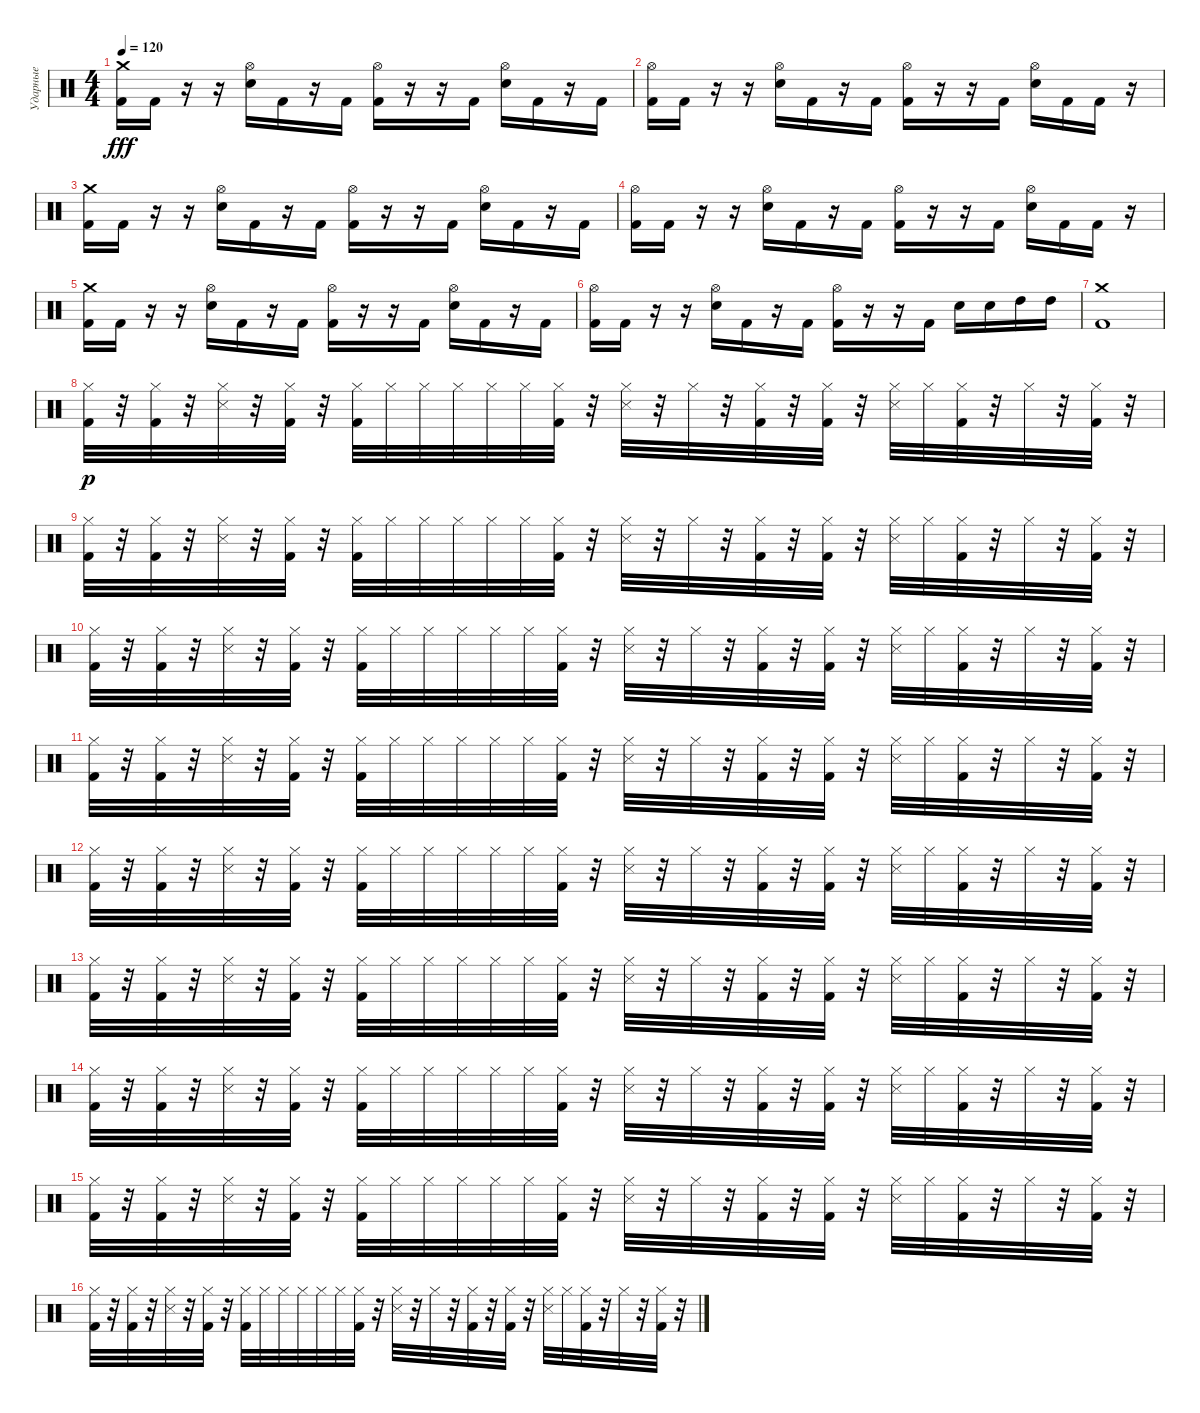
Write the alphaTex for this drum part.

\track ("Ударные" "Ударные") {instrument percussion}
\staff {score}
\articulation defaults
\ts (4 4)
\tempo 120
\clef neutral
\ks c
("Crash medium (hit)" "Kick (hit) 2").16{dy fff} "Kick (hit) 2".16 r.16 r.16 ("Hi-Hat (open)" "Electric Snare (hit)").16 "Kick (hit) 2".16 r.16 "Kick (hit) 2".16 ("Hi-Hat (open)" "Kick (hit) 2").16 r.16 r.16 "Kick (hit) 2".16 ("Hi-Hat (open)" "Electric Snare (hit)").16 "Kick (hit) 2".16 r.16 "Kick (hit) 2".16 |
("Hi-Hat (open)" "Kick (hit) 2").16 "Kick (hit) 2".16 r.16 r.16 ("Hi-Hat (open)" "Electric Snare (hit)").16 "Kick (hit) 2".16 r.16 "Kick (hit) 2".16 ("Hi-Hat (open)" "Kick (hit) 2").16 r.16 r.16 "Kick (hit) 2".16 ("Hi-Hat (open)" "Electric Snare (hit)").16 "Kick (hit) 2".16 "Kick (hit) 2".16 r.16 |
("Crash medium (hit)" "Kick (hit) 2").16 "Kick (hit) 2".16 r.16 r.16 ("Hi-Hat (open)" "Electric Snare (hit)").16 "Kick (hit) 2".16 r.16 "Kick (hit) 2".16 ("Hi-Hat (open)" "Kick (hit) 2").16 r.16 r.16 "Kick (hit) 2".16 ("Hi-Hat (open)" "Electric Snare (hit)").16 "Kick (hit) 2".16 r.16 "Kick (hit) 2".16 |
("Hi-Hat (open)" "Kick (hit) 2").16 "Kick (hit) 2".16 r.16 r.16 ("Hi-Hat (open)" "Electric Snare (hit)").16 "Kick (hit) 2".16 r.16 "Kick (hit) 2".16 ("Hi-Hat (open)" "Kick (hit) 2").16 r.16 r.16 "Kick (hit) 2".16 ("Hi-Hat (open)" "Electric Snare (hit)").16 "Kick (hit) 2".16 "Kick (hit) 2".16 r.16 |
("Crash medium (hit)" "Kick (hit) 2").16 "Kick (hit) 2".16 r.16 r.16 ("Hi-Hat (open)" "Electric Snare (hit)").16 "Kick (hit) 2".16 r.16 "Kick (hit) 2".16 ("Hi-Hat (open)" "Kick (hit) 2").16 r.16 r.16 "Kick (hit) 2".16 ("Hi-Hat (open)" "Electric Snare (hit)").16 "Kick (hit) 2".16 r.16 "Kick (hit) 2".16 |
("Hi-Hat (open)" "Kick (hit) 2").16 "Kick (hit) 2".16 r.16 r.16 ("Hi-Hat (open)" "Electric Snare (hit)").16 "Kick (hit) 2".16 r.16 "Kick (hit) 2".16 ("Hi-Hat (open)" "Kick (hit) 2").16 r.16 r.16 "Kick (hit) 2".16 "Electric Snare (hit)".16 "Electric Snare (hit)".16 "High Tom (hit)".16 "High Tom (hit)".16 |
("Crash medium (hit)" "Kick (hit) 2").1 |
("Hi-Hat (closed)" "Kick (hit) 2").32{dy p} r.32 ("Hi-Hat (closed)" "Kick (hit) 2").32 r.32 ("Hi-Hat (closed)" "Metronome (hit)").32 r.32 ("Hi-Hat (closed)" "Kick (hit) 2").32 r.32 ("Hi-Hat (closed)" "Kick (hit) 2").32 "Hi-Hat (closed)".32 "Hi-Hat (closed)".32 "Hi-Hat (closed)".32 "Hi-Hat (closed)".32 "Hi-Hat (closed)".32 ("Hi-Hat (closed)" "Kick (hit) 2").32 r.32 ("Hi-Hat (closed)" "Metronome (hit)").32 r.32 "Hi-Hat (closed)".32 r.32 ("Hi-Hat (closed)" "Kick (hit) 2").32 r.32 ("Hi-Hat (closed)" "Kick (hit) 2").32 r.32 ("Hi-Hat (closed)" "Metronome (hit)").32 "Hi-Hat (closed)".32 ("Hi-Hat (closed)" "Kick (hit) 2").32 r.32 "Hi-Hat (closed)".32 r.32 ("Hi-Hat (closed)" "Kick (hit) 2").32 r.32 |
("Hi-Hat (closed)" "Kick (hit) 2").32 r.32 ("Hi-Hat (closed)" "Kick (hit) 2").32 r.32 ("Hi-Hat (closed)" "Metronome (hit)").32 r.32 ("Hi-Hat (closed)" "Kick (hit) 2").32 r.32 ("Hi-Hat (closed)" "Kick (hit) 2").32 "Hi-Hat (closed)".32 "Hi-Hat (closed)".32 "Hi-Hat (closed)".32 "Hi-Hat (closed)".32 "Hi-Hat (closed)".32 ("Hi-Hat (closed)" "Kick (hit) 2").32 r.32 ("Hi-Hat (closed)" "Metronome (hit)").32 r.32 "Hi-Hat (closed)".32 r.32 ("Hi-Hat (closed)" "Kick (hit) 2").32 r.32 ("Hi-Hat (closed)" "Kick (hit) 2").32 r.32 ("Hi-Hat (closed)" "Metronome (hit)").32 "Hi-Hat (closed)".32 ("Hi-Hat (closed)" "Kick (hit) 2").32 r.32 "Hi-Hat (closed)".32 r.32 ("Hi-Hat (closed)" "Kick (hit) 2").32 r.32 |
("Hi-Hat (closed)" "Kick (hit) 2").32 r.32 ("Hi-Hat (closed)" "Kick (hit) 2").32 r.32 ("Hi-Hat (closed)" "Metronome (hit)").32 r.32 ("Hi-Hat (closed)" "Kick (hit) 2").32 r.32 ("Hi-Hat (closed)" "Kick (hit) 2").32 "Hi-Hat (closed)".32 "Hi-Hat (closed)".32 "Hi-Hat (closed)".32 "Hi-Hat (closed)".32 "Hi-Hat (closed)".32 ("Hi-Hat (closed)" "Kick (hit) 2").32 r.32 ("Hi-Hat (closed)" "Metronome (hit)").32 r.32 "Hi-Hat (closed)".32 r.32 ("Hi-Hat (closed)" "Kick (hit) 2").32 r.32 ("Hi-Hat (closed)" "Kick (hit) 2").32 r.32 ("Hi-Hat (closed)" "Metronome (hit)").32 "Hi-Hat (closed)".32 ("Hi-Hat (closed)" "Kick (hit) 2").32 r.32 "Hi-Hat (closed)".32 r.32 ("Hi-Hat (closed)" "Kick (hit) 2").32 r.32 |
("Hi-Hat (closed)" "Kick (hit) 2").32 r.32 ("Hi-Hat (closed)" "Kick (hit) 2").32 r.32 ("Hi-Hat (closed)" "Metronome (hit)").32 r.32 ("Hi-Hat (closed)" "Kick (hit) 2").32 r.32 ("Hi-Hat (closed)" "Kick (hit) 2").32 "Hi-Hat (closed)".32 "Hi-Hat (closed)".32 "Hi-Hat (closed)".32 "Hi-Hat (closed)".32 "Hi-Hat (closed)".32 ("Hi-Hat (closed)" "Kick (hit) 2").32 r.32 ("Hi-Hat (closed)" "Metronome (hit)").32 r.32 "Hi-Hat (closed)".32 r.32 ("Hi-Hat (closed)" "Kick (hit) 2").32 r.32 ("Hi-Hat (closed)" "Kick (hit) 2").32 r.32 ("Hi-Hat (closed)" "Metronome (hit)").32 "Hi-Hat (closed)".32 ("Hi-Hat (closed)" "Kick (hit) 2").32 r.32 "Hi-Hat (closed)".32 r.32 ("Hi-Hat (closed)" "Kick (hit) 2").32 r.32 |
("Hi-Hat (closed)" "Kick (hit) 2").32 r.32 ("Hi-Hat (closed)" "Kick (hit) 2").32 r.32 ("Hi-Hat (closed)" "Metronome (hit)").32 r.32 ("Hi-Hat (closed)" "Kick (hit) 2").32 r.32 ("Hi-Hat (closed)" "Kick (hit) 2").32 "Hi-Hat (closed)".32 "Hi-Hat (closed)".32 "Hi-Hat (closed)".32 "Hi-Hat (closed)".32 "Hi-Hat (closed)".32 ("Hi-Hat (closed)" "Kick (hit) 2").32 r.32 ("Hi-Hat (closed)" "Metronome (hit)").32 r.32 "Hi-Hat (closed)".32 r.32 ("Hi-Hat (closed)" "Kick (hit) 2").32 r.32 ("Hi-Hat (closed)" "Kick (hit) 2").32 r.32 ("Hi-Hat (closed)" "Metronome (hit)").32 "Hi-Hat (closed)".32 ("Hi-Hat (closed)" "Kick (hit) 2").32 r.32 "Hi-Hat (closed)".32 r.32 ("Hi-Hat (closed)" "Kick (hit) 2").32 r.32 |
("Hi-Hat (closed)" "Kick (hit) 2").32 r.32 ("Hi-Hat (closed)" "Kick (hit) 2").32 r.32 ("Hi-Hat (closed)" "Metronome (hit)").32 r.32 ("Hi-Hat (closed)" "Kick (hit) 2").32 r.32 ("Hi-Hat (closed)" "Kick (hit) 2").32 "Hi-Hat (closed)".32 "Hi-Hat (closed)".32 "Hi-Hat (closed)".32 "Hi-Hat (closed)".32 "Hi-Hat (closed)".32 ("Hi-Hat (closed)" "Kick (hit) 2").32 r.32 ("Hi-Hat (closed)" "Metronome (hit)").32 r.32 "Hi-Hat (closed)".32 r.32 ("Hi-Hat (closed)" "Kick (hit) 2").32 r.32 ("Hi-Hat (closed)" "Kick (hit) 2").32 r.32 ("Hi-Hat (closed)" "Metronome (hit)").32 "Hi-Hat (closed)".32 ("Hi-Hat (closed)" "Kick (hit) 2").32 r.32 "Hi-Hat (closed)".32 r.32 ("Hi-Hat (closed)" "Kick (hit) 2").32 r.32 |
("Hi-Hat (closed)" "Kick (hit) 2").32 r.32 ("Hi-Hat (closed)" "Kick (hit) 2").32 r.32 ("Hi-Hat (closed)" "Metronome (hit)").32 r.32 ("Hi-Hat (closed)" "Kick (hit) 2").32 r.32 ("Hi-Hat (closed)" "Kick (hit) 2").32 "Hi-Hat (closed)".32 "Hi-Hat (closed)".32 "Hi-Hat (closed)".32 "Hi-Hat (closed)".32 "Hi-Hat (closed)".32 ("Hi-Hat (closed)" "Kick (hit) 2").32 r.32 ("Hi-Hat (closed)" "Metronome (hit)").32 r.32 "Hi-Hat (closed)".32 r.32 ("Hi-Hat (closed)" "Kick (hit) 2").32 r.32 ("Hi-Hat (closed)" "Kick (hit) 2").32 r.32 ("Hi-Hat (closed)" "Metronome (hit)").32 "Hi-Hat (closed)".32 ("Hi-Hat (closed)" "Kick (hit) 2").32 r.32 "Hi-Hat (closed)".32 r.32 ("Hi-Hat (closed)" "Kick (hit) 2").32 r.32 |
("Hi-Hat (closed)" "Kick (hit) 2").32 r.32 ("Hi-Hat (closed)" "Kick (hit) 2").32 r.32 ("Hi-Hat (closed)" "Metronome (hit)").32 r.32 ("Hi-Hat (closed)" "Kick (hit) 2").32 r.32 ("Hi-Hat (closed)" "Kick (hit) 2").32 "Hi-Hat (closed)".32 "Hi-Hat (closed)".32 "Hi-Hat (closed)".32 "Hi-Hat (closed)".32 "Hi-Hat (closed)".32 ("Hi-Hat (closed)" "Kick (hit) 2").32 r.32 ("Hi-Hat (closed)" "Metronome (hit)").32 r.32 "Hi-Hat (closed)".32 r.32 ("Hi-Hat (closed)" "Kick (hit) 2").32 r.32 ("Hi-Hat (closed)" "Kick (hit) 2").32 r.32 ("Hi-Hat (closed)" "Metronome (hit)").32 "Hi-Hat (closed)".32 ("Hi-Hat (closed)" "Kick (hit) 2").32 r.32 "Hi-Hat (closed)".32 r.32 ("Hi-Hat (closed)" "Kick (hit) 2").32 r.32 |
("Hi-Hat (closed)" "Kick (hit) 2").32 r.32 ("Hi-Hat (closed)" "Kick (hit) 2").32 r.32 ("Hi-Hat (closed)" "Metronome (hit)").32 r.32 ("Hi-Hat (closed)" "Kick (hit) 2").32 r.32 ("Hi-Hat (closed)" "Kick (hit) 2").32 "Hi-Hat (closed)".32 "Hi-Hat (closed)".32 "Hi-Hat (closed)".32 "Hi-Hat (closed)".32 "Hi-Hat (closed)".32 ("Hi-Hat (closed)" "Kick (hit) 2").32 r.32 ("Hi-Hat (closed)" "Metronome (hit)").32 r.32 "Hi-Hat (closed)".32 r.32 ("Hi-Hat (closed)" "Kick (hit) 2").32 r.32 ("Hi-Hat (closed)" "Kick (hit) 2").32 r.32 ("Hi-Hat (closed)" "Metronome (hit)").32 "Hi-Hat (closed)".32 ("Hi-Hat (closed)" "Kick (hit) 2").32 r.32 "Hi-Hat (closed)".32 r.32 ("Hi-Hat (closed)" "Kick (hit) 2").32 r.32
